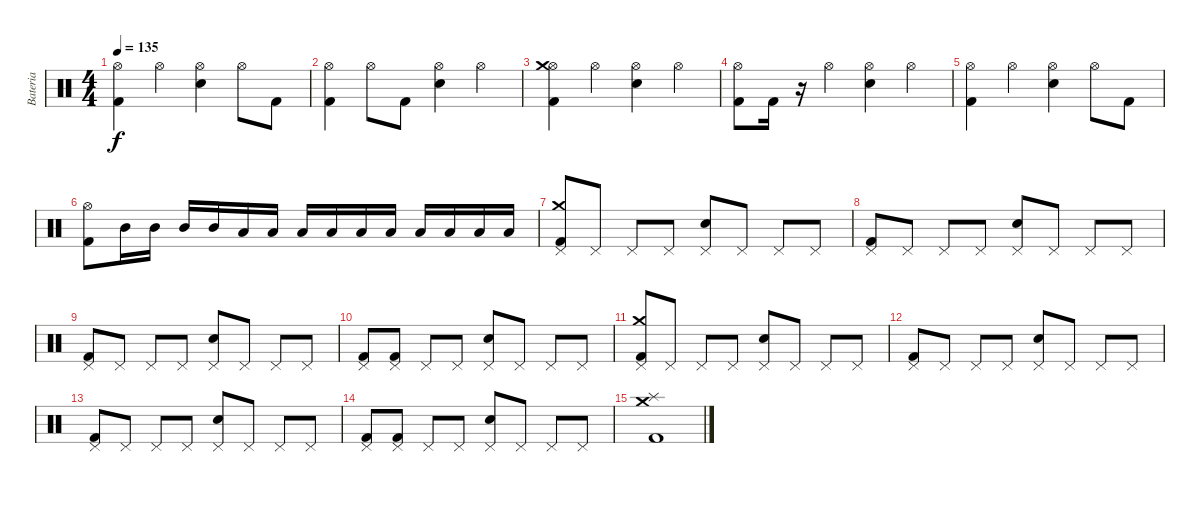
\track ("Bateria" "Bateria") {instrument percussion}
\staff {score}
\articulation defaults
\ts (4 4)
\tempo 135
\clef neutral
\ks c
("Kick (hit) 2" "Hi-Hat (open)").4{dy f} "Hi-Hat (open)".4 ("Electric Snare (hit)" "Hi-Hat (open)").4 "Hi-Hat (open)".8 "Kick (hit) 2".8 |
("Kick (hit) 2" "Hi-Hat (open)").4 "Hi-Hat (open)".8 "Kick (hit) 2".8 ("Electric Snare (hit)" "Hi-Hat (open)").4 "Hi-Hat (open)".4 |
("Kick (hit) 2" "Hi-Hat (open)" "Crash medium (hit)").4 "Hi-Hat (open)".4 ("Electric Snare (hit)" "Hi-Hat (open)").4 "Hi-Hat (open)".4 |
("Kick (hit) 2" "Hi-Hat (open)").8 "Kick (hit) 2".16 r.16 "Hi-Hat (open)".4 ("Electric Snare (hit)" "Hi-Hat (open)").4 "Hi-Hat (open)".4 |
("Kick (hit) 2" "Hi-Hat (open)").4 "Hi-Hat (open)".4 ("Electric Snare (hit)" "Hi-Hat (open)").4 "Hi-Hat (open)".8 "Kick (hit) 2".8 |
("Kick (hit) 2" "Hi-Hat (open)").8 "Mid Tom (hit)".16 "Mid Tom (hit)".16 "Mid Tom (hit)".16 "Mid Tom (hit)".16 "Low Tom (hit)".16 "Low Tom (hit)".16 "Low Tom (hit)".16 "Low Tom (hit)".16 "Low Floor Tom (hit)".16 "Low Floor Tom (hit)".16 "Low Floor Tom (hit)".16 "Low Floor Tom (hit)".16 "Low Floor Tom (hit)".16 "Low Floor Tom (hit)".16 |
("Kick (hit) 2" "Pedal Hi-Hat (hit)" "Crash medium (hit)").8 "Pedal Hi-Hat (hit)".8 "Pedal Hi-Hat (hit)".8 "Pedal Hi-Hat (hit)".8 ("Electric Snare (hit)" "Pedal Hi-Hat (hit)").8 "Pedal Hi-Hat (hit)".8 "Pedal Hi-Hat (hit)".8 "Pedal Hi-Hat (hit)".8 |
("Kick (hit) 2" "Pedal Hi-Hat (hit)").8 "Pedal Hi-Hat (hit)".8 "Pedal Hi-Hat (hit)".8 "Pedal Hi-Hat (hit)".8 ("Electric Snare (hit)" "Pedal Hi-Hat (hit)").8 "Pedal Hi-Hat (hit)".8 "Pedal Hi-Hat (hit)".8 "Pedal Hi-Hat (hit)".8 |
("Kick (hit) 2" "Pedal Hi-Hat (hit)").8 "Pedal Hi-Hat (hit)".8 "Pedal Hi-Hat (hit)".8 "Pedal Hi-Hat (hit)".8 ("Electric Snare (hit)" "Pedal Hi-Hat (hit)").8 "Pedal Hi-Hat (hit)".8 "Pedal Hi-Hat (hit)".8 "Pedal Hi-Hat (hit)".8 |
("Kick (hit) 2" "Pedal Hi-Hat (hit)").8 ("Kick (hit) 2" "Pedal Hi-Hat (hit)").8 "Pedal Hi-Hat (hit)".8 "Pedal Hi-Hat (hit)".8 ("Electric Snare (hit)" "Pedal Hi-Hat (hit)").8 "Pedal Hi-Hat (hit)".8 "Pedal Hi-Hat (hit)".8 "Pedal Hi-Hat (hit)".8 |
("Kick (hit) 2" "Pedal Hi-Hat (hit)" "Crash medium (hit)").8 "Pedal Hi-Hat (hit)".8 "Pedal Hi-Hat (hit)".8 "Pedal Hi-Hat (hit)".8 ("Electric Snare (hit)" "Pedal Hi-Hat (hit)").8 "Pedal Hi-Hat (hit)".8 "Pedal Hi-Hat (hit)".8 "Pedal Hi-Hat (hit)".8 |
("Kick (hit) 2" "Pedal Hi-Hat (hit)").8 "Pedal Hi-Hat (hit)".8 "Pedal Hi-Hat (hit)".8 "Pedal Hi-Hat (hit)".8 ("Electric Snare (hit)" "Pedal Hi-Hat (hit)").8 "Pedal Hi-Hat (hit)".8 "Pedal Hi-Hat (hit)".8 "Pedal Hi-Hat (hit)".8 |
("Kick (hit) 2" "Pedal Hi-Hat (hit)").8 "Pedal Hi-Hat (hit)".8 "Pedal Hi-Hat (hit)".8 "Pedal Hi-Hat (hit)".8 ("Electric Snare (hit)" "Pedal Hi-Hat (hit)").8 "Pedal Hi-Hat (hit)".8 "Pedal Hi-Hat (hit)".8 "Pedal Hi-Hat (hit)".8 |
("Kick (hit) 2" "Pedal Hi-Hat (hit)").8 ("Kick (hit) 2" "Pedal Hi-Hat (hit)").8 "Pedal Hi-Hat (hit)".8 "Pedal Hi-Hat (hit)".8 ("Electric Snare (hit)" "Pedal Hi-Hat (hit)").8 "Pedal Hi-Hat (hit)".8 "Pedal Hi-Hat (hit)".8 "Pedal Hi-Hat (hit)".8 |
("Kick (hit) 2" "Crash medium (hit)" "Splash (hit)").1
